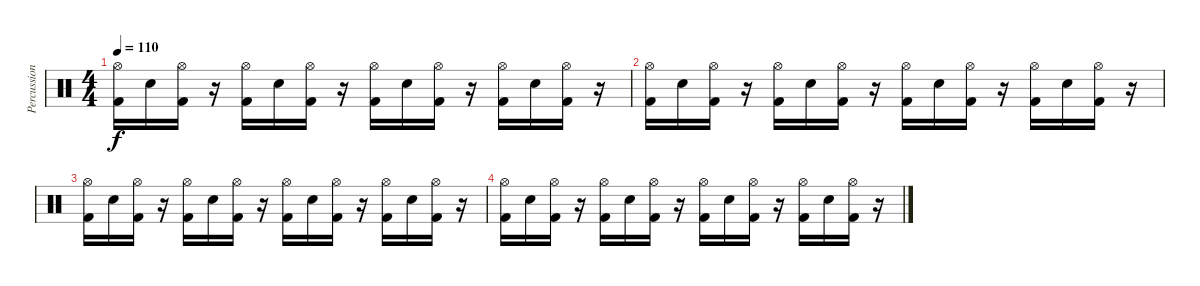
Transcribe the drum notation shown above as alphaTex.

\track ("Percussion" "Percussion") {instrument percussion}
\staff {score}
\articulation defaults
\ts (4 4)
\tempo 110
\clef neutral
\ks c
("Hi-Hat (open)" "Kick (hit) 2").16{dy f} "Snare (hit) 2".16 ("Hi-Hat (open)" "Kick (hit) 2").16 r.16 ("Hi-Hat (open)" "Kick (hit) 2").16 "Snare (hit) 2".16 ("Hi-Hat (open)" "Kick (hit) 2").16 r.16 ("Hi-Hat (open)" "Kick (hit) 2").16 "Snare (hit) 2".16 ("Hi-Hat (open)" "Kick (hit) 2").16 r.16 ("Hi-Hat (open)" "Kick (hit) 2").16 "Snare (hit) 2".16 ("Hi-Hat (open)" "Kick (hit) 2").16 r.16 |
("Hi-Hat (open)" "Kick (hit) 2").16 "Snare (hit) 2".16 ("Hi-Hat (open)" "Kick (hit) 2").16 r.16 ("Hi-Hat (open)" "Kick (hit) 2").16 "Snare (hit) 2".16 ("Hi-Hat (open)" "Kick (hit) 2").16 r.16 ("Hi-Hat (open)" "Kick (hit) 2").16 "Snare (hit) 2".16 ("Hi-Hat (open)" "Kick (hit) 2").16 r.16 ("Hi-Hat (open)" "Kick (hit) 2").16 "Snare (hit) 2".16 ("Hi-Hat (open)" "Kick (hit) 2").16 r.16 |
("Hi-Hat (open)" "Kick (hit) 2").16 "Snare (hit) 2".16 ("Hi-Hat (open)" "Kick (hit) 2").16 r.16 ("Hi-Hat (open)" "Kick (hit) 2").16 "Snare (hit) 2".16 ("Hi-Hat (open)" "Kick (hit) 2").16 r.16 ("Hi-Hat (open)" "Kick (hit) 2").16 "Snare (hit) 2".16 ("Hi-Hat (open)" "Kick (hit) 2").16 r.16 ("Hi-Hat (open)" "Kick (hit) 2").16 "Snare (hit) 2".16 ("Hi-Hat (open)" "Kick (hit) 2").16 r.16 |
("Hi-Hat (open)" "Kick (hit) 2").16 "Snare (hit) 2".16 ("Hi-Hat (open)" "Kick (hit) 2").16 r.16 ("Hi-Hat (open)" "Kick (hit) 2").16 "Snare (hit) 2".16 ("Hi-Hat (open)" "Kick (hit) 2").16 r.16 ("Hi-Hat (open)" "Kick (hit) 2").16 "Snare (hit) 2".16 ("Hi-Hat (open)" "Kick (hit) 2").16 r.16 ("Hi-Hat (open)" "Kick (hit) 2").16 "Snare (hit) 2".16 ("Hi-Hat (open)" "Kick (hit) 2").16 r.16
